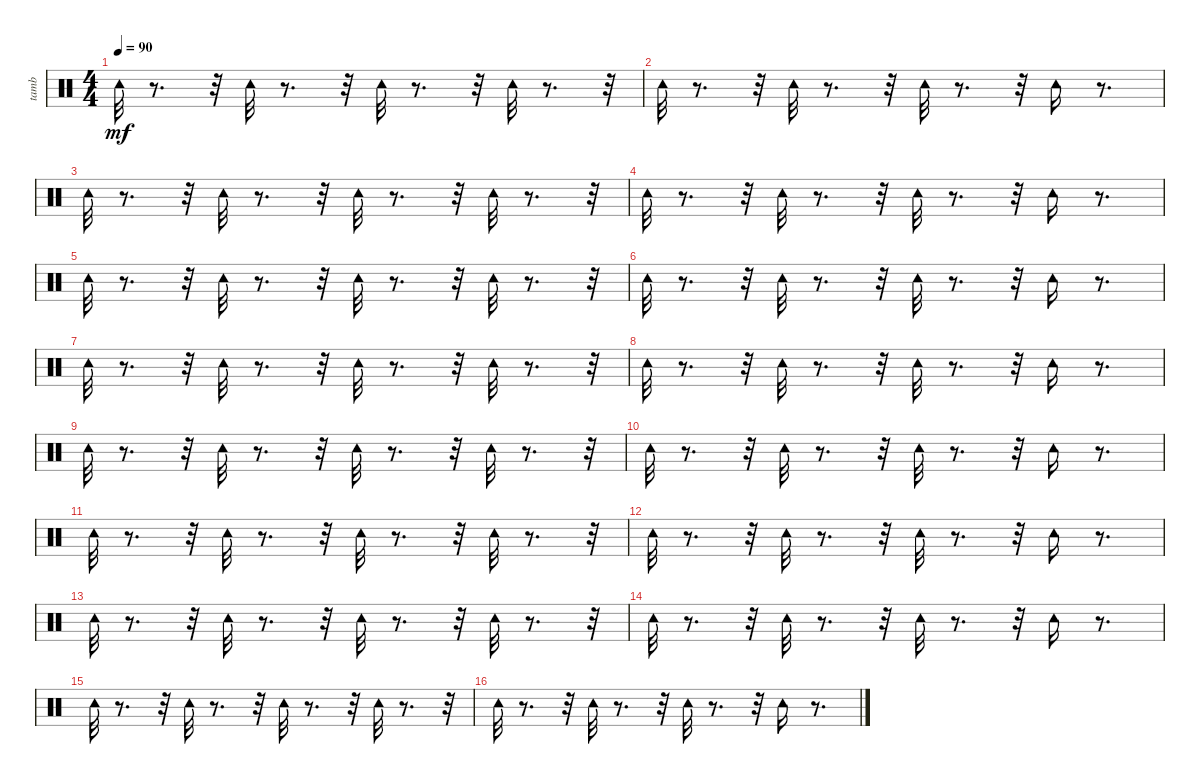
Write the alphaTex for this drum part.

\track ("tamb" "tamb") {instrument percussion}
\staff {score}
\articulation defaults
\ts (4 4)
\tempo 90
\clef neutral
\ks c "Tambourine (hit)".32{dy mf}
r.8{d} r.32 "Tambourine (hit)".32 r.8{d} r.32 "Tambourine (hit)".32 r.8{d} r.32 "Tambourine (hit)".32 r.8{d} r.32 |
"Tambourine (hit)".32 r.8{d} r.32 "Tambourine (hit)".32 r.8{d} r.32 "Tambourine (hit)".32 r.8{d} r.32 "Tambourine (hit)".16 r.8{d} |
"Tambourine (hit)".32 r.8{d} r.32 "Tambourine (hit)".32 r.8{d} r.32 "Tambourine (hit)".32 r.8{d} r.32 "Tambourine (hit)".32 r.8{d} r.32 |
"Tambourine (hit)".32 r.8{d} r.32 "Tambourine (hit)".32 r.8{d} r.32 "Tambourine (hit)".32 r.8{d} r.32 "Tambourine (hit)".16 r.8{d} |
"Tambourine (hit)".32 r.8{d} r.32 "Tambourine (hit)".32 r.8{d} r.32 "Tambourine (hit)".32 r.8{d} r.32 "Tambourine (hit)".32 r.8{d} r.32 |
"Tambourine (hit)".32 r.8{d} r.32 "Tambourine (hit)".32 r.8{d} r.32 "Tambourine (hit)".32 r.8{d} r.32 "Tambourine (hit)".16 r.8{d} |
"Tambourine (hit)".32 r.8{d} r.32 "Tambourine (hit)".32 r.8{d} r.32 "Tambourine (hit)".32 r.8{d} r.32 "Tambourine (hit)".32 r.8{d} r.32 |
"Tambourine (hit)".32 r.8{d} r.32 "Tambourine (hit)".32 r.8{d} r.32 "Tambourine (hit)".32 r.8{d} r.32 "Tambourine (hit)".16 r.8{d} |
"Tambourine (hit)".32 r.8{d} r.32 "Tambourine (hit)".32 r.8{d} r.32 "Tambourine (hit)".32 r.8{d} r.32 "Tambourine (hit)".32 r.8{d} r.32 |
"Tambourine (hit)".32 r.8{d} r.32 "Tambourine (hit)".32 r.8{d} r.32 "Tambourine (hit)".32 r.8{d} r.32 "Tambourine (hit)".16 r.8{d} |
"Tambourine (hit)".32 r.8{d} r.32 "Tambourine (hit)".32 r.8{d} r.32 "Tambourine (hit)".32 r.8{d} r.32 "Tambourine (hit)".32 r.8{d} r.32 |
"Tambourine (hit)".32 r.8{d} r.32 "Tambourine (hit)".32 r.8{d} r.32 "Tambourine (hit)".32 r.8{d} r.32 "Tambourine (hit)".16 r.8{d} |
"Tambourine (hit)".32 r.8{d} r.32 "Tambourine (hit)".32 r.8{d} r.32 "Tambourine (hit)".32 r.8{d} r.32 "Tambourine (hit)".32 r.8{d} r.32 |
"Tambourine (hit)".32 r.8{d} r.32 "Tambourine (hit)".32 r.8{d} r.32 "Tambourine (hit)".32 r.8{d} r.32 "Tambourine (hit)".16 r.8{d} |
"Tambourine (hit)".32 r.8{d} r.32 "Tambourine (hit)".32 r.8{d} r.32 "Tambourine (hit)".32 r.8{d} r.32 "Tambourine (hit)".32 r.8{d} r.32 |
"Tambourine (hit)".32 r.8{d} r.32 "Tambourine (hit)".32 r.8{d} r.32 "Tambourine (hit)".32 r.8{d} r.32 "Tambourine (hit)".16 r.8{d}
